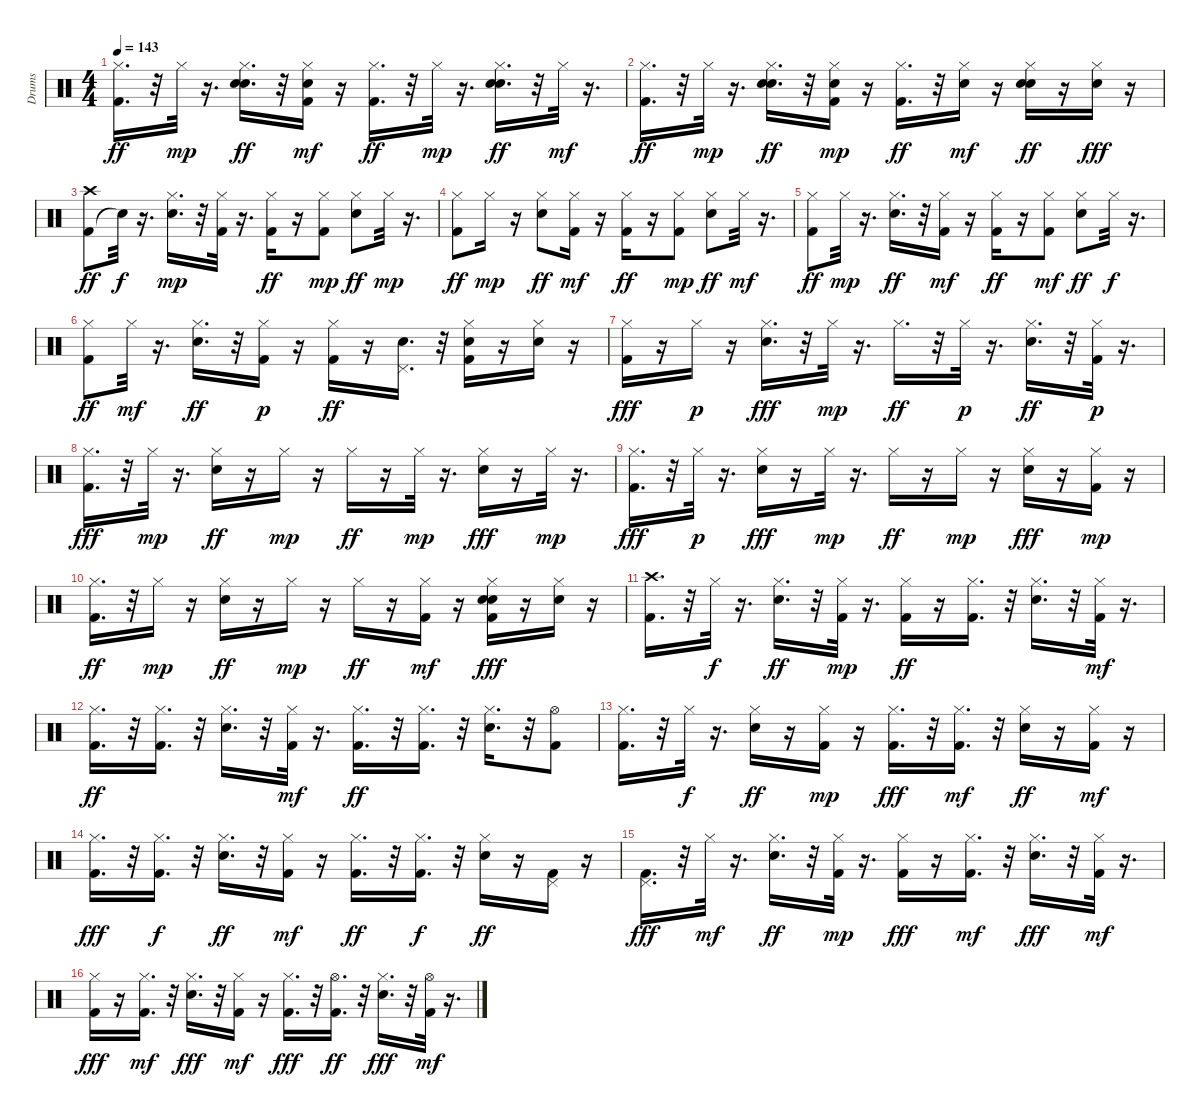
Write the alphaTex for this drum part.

\track ("Drums               " "Drums     ") {instrument percussion}
\staff {score}
\articulation defaults
\ts (4 4)
\tempo 143
\clef neutral
\ks c
("Kick (hit) 2" "Hi-Hat (closed)").16{d dy ff} r.32 "Hi-Hat (closed)".32{dy mp} r.16{d} ("Snare (hit) 2" "Hand Clap (hit)" "Hi-Hat (closed)").16{d dy ff} r.32 ("Kick (hit) 2" "Hand Clap (hit)" "Hi-Hat (closed)").16{dy mf} r.16 ("Kick (hit) 2" "Hi-Hat (closed)").16{d dy ff} r.32 "Hi-Hat (closed)".32{dy mp} r.16{d} ("Snare (hit) 2" "Hand Clap (hit)" "Hi-Hat (closed)").16{d dy ff} r.32 "Hi-Hat (closed)".32{dy mf} r.16{d} |
("Kick (hit) 2" "Hi-Hat (closed)").16{d dy ff} r.32 "Hi-Hat (closed)".32{dy mp} r.16{d} ("Snare (hit) 2" "Hand Clap (hit)" "Hi-Hat (closed)").16{d dy ff} r.32 ("Kick (hit) 2" "Hand Clap (hit)" "Hi-Hat (closed)").16{dy mp} r.16 ("Kick (hit) 2" "Hi-Hat (closed)").16{d dy ff} r.32 ("Snare (hit) 2" "Hi-Hat (closed)").16{dy mf} r.16 ("Snare (hit) 2" "Hand Clap (hit)" "Hi-Hat (closed)").16{dy ff} r.16 ("Snare (hit) 2" "Hi-Hat (closed)").16{dy fff} r.16 |
("Kick (hit) 2" "Crash high (hit)").8{dy ff} "Snare (hit)"{t}.32{dy f} r.16{d} ("Snare (hit) 2" "Hi-Hat (closed)").16{d dy mp} r.32 ("Kick (hit) 2" "Hi-Hat (closed)").32 r.16{d} ("Kick (hit) 2" "Hi-Hat (closed)").16{dy ff} r.16 ("Kick (hit) 2" "Hi-Hat (closed)").8{dy mp} ("Snare (hit) 2" "Hi-Hat (closed)").8{dy ff} "Hi-Hat (closed)".32{dy mp} r.16{d} |
("Kick (hit) 2" "Hi-Hat (closed)").8{dy ff} "Hi-Hat (closed)".16{dy mp} r.16 ("Snare (hit) 2" "Hi-Hat (closed)").8{dy ff} ("Kick (hit) 2" "Hi-Hat (closed)").16{dy mf} r.16 ("Kick (hit) 2" "Hi-Hat (closed)").16{dy ff} r.16 ("Kick (hit) 2" "Hi-Hat (closed)").8{dy mp} ("Snare (hit) 2" "Hi-Hat (closed)").8{dy ff} "Hi-Hat (closed)".32{dy mf} r.16{d} |
("Kick (hit) 2" "Hi-Hat (closed)").8{dy ff} "Hi-Hat (closed)".32{dy mp} r.16{d} ("Snare (hit) 2" "Hi-Hat (closed)").16{d dy ff} r.32 ("Kick (hit) 2" "Hi-Hat (closed)").16{dy mf} r.16 ("Kick (hit) 2" "Hi-Hat (closed)").16{dy ff} r.16 ("Kick (hit) 2" "Hi-Hat (closed)").8{dy mf} ("Snare (hit) 2" "Hi-Hat (closed)").8{dy ff} "Hi-Hat (closed)".32{dy f} r.16{d} |
("Kick (hit) 2" "Hi-Hat (closed)").8{dy ff} "Hi-Hat (closed)".32{dy mf} r.16{d} ("Snare (hit) 2" "Hi-Hat (closed)").16{d dy ff} r.32 ("Kick (hit) 2" "Hi-Hat (closed)").16{dy p} r.16 ("Kick (hit) 2" "Hi-Hat (closed)").16{dy ff} r.16 ("Snare (hit) 2" "Pedal Hi-Hat (hit)").16{d} r.32 ("Kick (hit) 2" "Snare (hit) 2" "Hi-Hat (closed)").16 r.16 ("Snare (hit) 2" "Hi-Hat (closed)").16 r.16 |
("Kick (hit) 2" "Hi-Hat (closed)").16{dy fff} r.16 "Hi-Hat (closed)".16{dy p} r.16 ("Hand Clap (hit)" "Hi-Hat (closed)").16{d dy fff} r.32 "Hi-Hat (closed)".32{dy mp} r.16{d} "Hi-Hat (closed)".16{d dy ff} r.32 "Hi-Hat (closed)".32{dy p} r.16{d} ("Hand Clap (hit)" "Hi-Hat (closed)").16{d dy ff} r.32 ("Kick (hit) 2" "Hi-Hat (closed)").32{dy p} r.16{d} |
("Kick (hit) 2" "Hi-Hat (closed)").16{d dy fff} r.32 "Hi-Hat (closed)".32{dy mp} r.16{d} ("Hand Clap (hit)" "Hi-Hat (closed)").16{dy ff} r.16 "Hi-Hat (closed)".16{dy mp} r.16 "Hi-Hat (closed)".16{dy ff} r.16 "Hi-Hat (closed)".32{dy mp} r.16{d} ("Hand Clap (hit)" "Hi-Hat (closed)").16{dy fff} r.16 "Hi-Hat (closed)".32{dy mp} r.16{d} |
("Kick (hit) 2" "Hi-Hat (closed)").16{d dy fff} r.32 "Hi-Hat (closed)".32{dy p} r.16{d} ("Hand Clap (hit)" "Hi-Hat (closed)").16{dy fff} r.16 "Hi-Hat (closed)".32{dy mp} r.16{d} "Hi-Hat (closed)".16{dy ff} r.16 "Hi-Hat (closed)".16{dy mp} r.16 ("Hand Clap (hit)" "Hi-Hat (closed)").16{dy fff} r.16 ("Kick (hit) 2" "Hi-Hat (closed)").16{dy mp} r.16 |
("Kick (hit) 2" "Hi-Hat (closed)").16{d dy ff} r.32 "Hi-Hat (closed)".16{dy mp} r.16 ("Hand Clap (hit)" "Hi-Hat (closed)").16{dy ff} r.16 "Hi-Hat (closed)".16{dy mp} r.16 "Hi-Hat (closed)".16{dy ff} r.16 ("Kick (hit) 2" "Hi-Hat (closed)").16{dy mf} r.16 ("Kick (hit) 2" "Snare (hit) 2" "Hand Clap (hit)" "Hi-Hat (closed)").16{dy fff} r.16 ("Snare (hit) 2" "Hi-Hat (closed)").16 r.16 |
("Kick (hit) 2" "Crash high (hit)").16{d} r.32 "Hi-Hat (closed)".32{dy f} r.16{d} ("Snare (hit) 2" "Hi-Hat (closed)").16{d dy ff} r.32 ("Kick (hit) 2" "Hi-Hat (closed)").32{dy mp} r.16{d} ("Kick (hit) 2" "Hi-Hat (closed)").16{dy ff} r.16 ("Kick (hit) 2" "Hi-Hat (closed)").16{d} r.32 ("Snare (hit) 2" "Hi-Hat (closed)").16{d} r.32 ("Kick (hit) 2" "Hi-Hat (closed)").32{dy mf} r.16{d} |
("Kick (hit) 2" "Hi-Hat (closed)").16{d dy ff} r.32 ("Kick (hit) 2" "Hi-Hat (closed)").16{d} r.32 ("Snare (hit) 2" "Hi-Hat (closed)").16{d} r.32 ("Kick (hit) 2" "Hi-Hat (closed)").32{dy mf} r.16{d} ("Kick (hit) 2" "Hi-Hat (closed)").16{d dy ff} r.32 ("Kick (hit) 2" "Hi-Hat (closed)").16{d} r.32 ("Snare (hit) 2" "Hi-Hat (closed)").16{d} r.32 ("Kick (hit) 2" "Hi-Hat (open)").8 |
("Kick (hit) 2" "Hi-Hat (closed)").16{d} r.32 "Hi-Hat (closed)".32{dy f} r.16{d} ("Snare (hit) 2" "Hi-Hat (closed)").16{dy ff} r.16 ("Kick (hit) 2" "Hi-Hat (closed)").16{dy mp} r.16 ("Kick (hit) 2" "Hi-Hat (closed)").16{d dy fff} r.32 ("Kick (hit) 2" "Hi-Hat (closed)").16{d dy mf} r.32 ("Snare (hit) 2" "Hi-Hat (closed)").16{dy ff} r.16 ("Kick (hit) 2" "Hi-Hat (closed)").16{dy mf} r.16 |
("Kick (hit) 2" "Hi-Hat (closed)").16{d dy fff} r.32 ("Kick (hit) 2" "Hi-Hat (closed)").16{d dy f} r.32 ("Snare (hit) 2" "Hi-Hat (closed)").16{d dy ff} r.32 ("Kick (hit) 2" "Hi-Hat (closed)").16{dy mf} r.16 ("Kick (hit) 2" "Hi-Hat (closed)").16{d dy ff} r.32 ("Kick (hit) 2" "Hi-Hat (closed)").16{d dy f} r.32 ("Snare (hit) 2" "Hi-Hat (closed)").16{dy ff} r.16 ("Kick (hit) 2" "Pedal Hi-Hat (hit)").16 r.16 |
("Kick (hit) 2" "Pedal Hi-Hat (hit)").16{d dy fff} r.32 "Hi-Hat (closed)".32{dy mf} r.16{d} ("Snare (hit) 2" "Hi-Hat (closed)").16{d dy ff} r.32 ("Kick (hit) 2" "Hi-Hat (closed)").32{dy mp} r.16{d} ("Kick (hit) 2" "Hi-Hat (closed)").16{dy fff} r.16 ("Kick (hit) 2" "Hi-Hat (closed)").16{d dy mf} r.32 ("Snare (hit) 2" "Hi-Hat (closed)").16{d dy fff} r.32 ("Kick (hit) 2" "Hi-Hat (closed)").32{dy mf} r.16{d} |
("Kick (hit) 2" "Hi-Hat (closed)").16{dy fff} r.16 ("Kick (hit) 2" "Hi-Hat (closed)").16{d dy mf} r.32 ("Snare (hit) 2" "Hi-Hat (closed)").16{d dy fff} r.32 ("Kick (hit) 2" "Hi-Hat (closed)").16{dy mf} r.16 ("Kick (hit) 2" "Hi-Hat (closed)").16{d dy fff} r.32 ("Kick (hit) 2" "Hi-Hat (open)").16{d dy ff} r.32 ("Snare (hit) 2" "Hi-Hat (closed)").16{d dy fff} r.32 ("Kick (hit) 2" "Hi-Hat (open)").32{dy mf} r.16{d}
